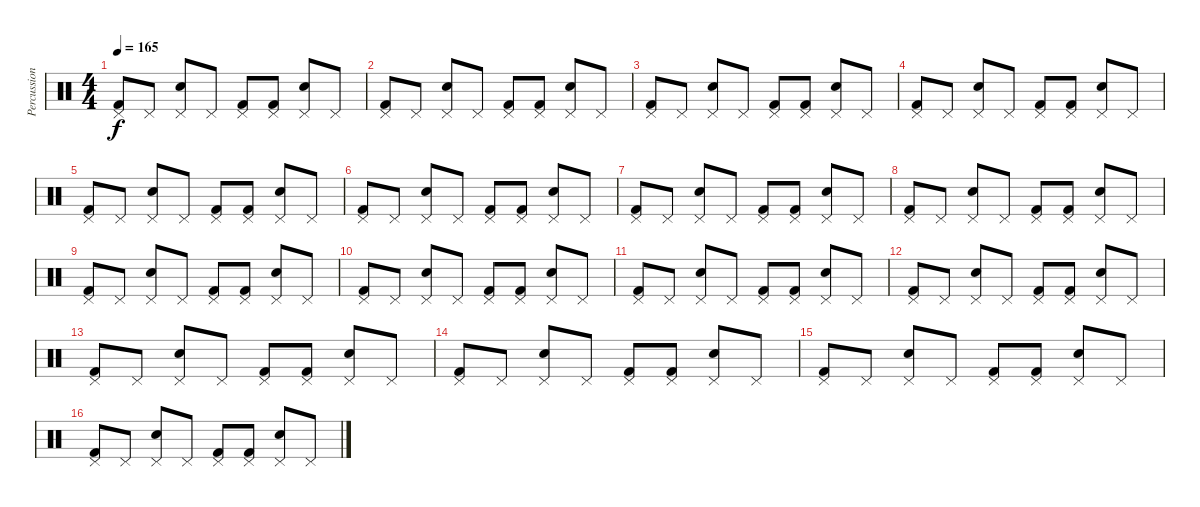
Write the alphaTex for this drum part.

\track ("Percussions" "Percussion") {instrument percussion}
\staff {score}
\articulation defaults
\ts (4 4)
\tempo 165
\clef neutral
\ks c
("Pedal Hi-Hat (hit)" "Kick (hit) 2").8{dy f} "Pedal Hi-Hat (hit)".8 ("Pedal Hi-Hat (hit)" "Electric Snare (hit)").8 "Pedal Hi-Hat (hit)".8 ("Pedal Hi-Hat (hit)" "Kick (hit) 2").8 ("Pedal Hi-Hat (hit)" "Kick (hit) 2").8 ("Pedal Hi-Hat (hit)" "Electric Snare (hit)").8 "Pedal Hi-Hat (hit)".8 |
("Pedal Hi-Hat (hit)" "Kick (hit) 2").8 "Pedal Hi-Hat (hit)".8 ("Pedal Hi-Hat (hit)" "Electric Snare (hit)").8 "Pedal Hi-Hat (hit)".8 ("Pedal Hi-Hat (hit)" "Kick (hit) 2").8 ("Pedal Hi-Hat (hit)" "Kick (hit) 2").8 ("Pedal Hi-Hat (hit)" "Electric Snare (hit)").8 "Pedal Hi-Hat (hit)".8 |
("Pedal Hi-Hat (hit)" "Kick (hit) 2").8 "Pedal Hi-Hat (hit)".8 ("Pedal Hi-Hat (hit)" "Electric Snare (hit)").8 "Pedal Hi-Hat (hit)".8 ("Pedal Hi-Hat (hit)" "Kick (hit) 2").8 ("Pedal Hi-Hat (hit)" "Kick (hit) 2").8 ("Pedal Hi-Hat (hit)" "Electric Snare (hit)").8 "Pedal Hi-Hat (hit)".8 |
("Pedal Hi-Hat (hit)" "Kick (hit) 2").8 "Pedal Hi-Hat (hit)".8 ("Pedal Hi-Hat (hit)" "Electric Snare (hit)").8 "Pedal Hi-Hat (hit)".8 ("Pedal Hi-Hat (hit)" "Kick (hit) 2").8 ("Pedal Hi-Hat (hit)" "Kick (hit) 2").8 ("Pedal Hi-Hat (hit)" "Electric Snare (hit)").8 "Pedal Hi-Hat (hit)".8 |
("Pedal Hi-Hat (hit)" "Kick (hit) 2").8 "Pedal Hi-Hat (hit)".8 ("Pedal Hi-Hat (hit)" "Electric Snare (hit)").8 "Pedal Hi-Hat (hit)".8 ("Pedal Hi-Hat (hit)" "Kick (hit) 2").8 ("Pedal Hi-Hat (hit)" "Kick (hit) 2").8 ("Pedal Hi-Hat (hit)" "Electric Snare (hit)").8 "Pedal Hi-Hat (hit)".8 |
("Pedal Hi-Hat (hit)" "Kick (hit) 2").8 "Pedal Hi-Hat (hit)".8 ("Pedal Hi-Hat (hit)" "Electric Snare (hit)").8 "Pedal Hi-Hat (hit)".8 ("Pedal Hi-Hat (hit)" "Kick (hit) 2").8 ("Pedal Hi-Hat (hit)" "Kick (hit) 2").8 ("Pedal Hi-Hat (hit)" "Electric Snare (hit)").8 "Pedal Hi-Hat (hit)".8 |
("Pedal Hi-Hat (hit)" "Kick (hit) 2").8 "Pedal Hi-Hat (hit)".8 ("Pedal Hi-Hat (hit)" "Electric Snare (hit)").8 "Pedal Hi-Hat (hit)".8 ("Pedal Hi-Hat (hit)" "Kick (hit) 2").8 ("Pedal Hi-Hat (hit)" "Kick (hit) 2").8 ("Pedal Hi-Hat (hit)" "Electric Snare (hit)").8 "Pedal Hi-Hat (hit)".8 |
("Pedal Hi-Hat (hit)" "Kick (hit) 2").8 "Pedal Hi-Hat (hit)".8 ("Pedal Hi-Hat (hit)" "Electric Snare (hit)").8 "Pedal Hi-Hat (hit)".8 ("Pedal Hi-Hat (hit)" "Kick (hit) 2").8 ("Pedal Hi-Hat (hit)" "Kick (hit) 2").8 ("Pedal Hi-Hat (hit)" "Electric Snare (hit)").8 "Pedal Hi-Hat (hit)".8 |
("Pedal Hi-Hat (hit)" "Kick (hit) 2").8 "Pedal Hi-Hat (hit)".8 ("Pedal Hi-Hat (hit)" "Electric Snare (hit)").8 "Pedal Hi-Hat (hit)".8 ("Pedal Hi-Hat (hit)" "Kick (hit) 2").8 ("Pedal Hi-Hat (hit)" "Kick (hit) 2").8 ("Pedal Hi-Hat (hit)" "Electric Snare (hit)").8 "Pedal Hi-Hat (hit)".8 |
("Pedal Hi-Hat (hit)" "Kick (hit) 2").8 "Pedal Hi-Hat (hit)".8 ("Pedal Hi-Hat (hit)" "Electric Snare (hit)").8 "Pedal Hi-Hat (hit)".8 ("Pedal Hi-Hat (hit)" "Kick (hit) 2").8 ("Pedal Hi-Hat (hit)" "Kick (hit) 2").8 ("Pedal Hi-Hat (hit)" "Electric Snare (hit)").8 "Pedal Hi-Hat (hit)".8 |
("Pedal Hi-Hat (hit)" "Kick (hit) 2").8 "Pedal Hi-Hat (hit)".8 ("Pedal Hi-Hat (hit)" "Electric Snare (hit)").8 "Pedal Hi-Hat (hit)".8 ("Pedal Hi-Hat (hit)" "Kick (hit) 2").8 ("Pedal Hi-Hat (hit)" "Kick (hit) 2").8 ("Pedal Hi-Hat (hit)" "Electric Snare (hit)").8 "Pedal Hi-Hat (hit)".8 |
("Pedal Hi-Hat (hit)" "Kick (hit) 2").8 "Pedal Hi-Hat (hit)".8 ("Pedal Hi-Hat (hit)" "Electric Snare (hit)").8 "Pedal Hi-Hat (hit)".8 ("Pedal Hi-Hat (hit)" "Kick (hit) 2").8 ("Pedal Hi-Hat (hit)" "Kick (hit) 2").8 ("Pedal Hi-Hat (hit)" "Electric Snare (hit)").8 "Pedal Hi-Hat (hit)".8 |
("Pedal Hi-Hat (hit)" "Kick (hit) 2").8 "Pedal Hi-Hat (hit)".8 ("Pedal Hi-Hat (hit)" "Electric Snare (hit)").8 "Pedal Hi-Hat (hit)".8 ("Pedal Hi-Hat (hit)" "Kick (hit) 2").8 ("Pedal Hi-Hat (hit)" "Kick (hit) 2").8 ("Pedal Hi-Hat (hit)" "Electric Snare (hit)").8 "Pedal Hi-Hat (hit)".8 |
("Pedal Hi-Hat (hit)" "Kick (hit) 2").8 "Pedal Hi-Hat (hit)".8 ("Pedal Hi-Hat (hit)" "Electric Snare (hit)").8 "Pedal Hi-Hat (hit)".8 ("Pedal Hi-Hat (hit)" "Kick (hit) 2").8 ("Pedal Hi-Hat (hit)" "Kick (hit) 2").8 ("Pedal Hi-Hat (hit)" "Electric Snare (hit)").8 "Pedal Hi-Hat (hit)".8 |
("Pedal Hi-Hat (hit)" "Kick (hit) 2").8 "Pedal Hi-Hat (hit)".8 ("Pedal Hi-Hat (hit)" "Electric Snare (hit)").8 "Pedal Hi-Hat (hit)".8 ("Pedal Hi-Hat (hit)" "Kick (hit) 2").8 ("Pedal Hi-Hat (hit)" "Kick (hit) 2").8 ("Pedal Hi-Hat (hit)" "Electric Snare (hit)").8 "Pedal Hi-Hat (hit)".8 |
("Pedal Hi-Hat (hit)" "Kick (hit) 2").8 "Pedal Hi-Hat (hit)".8 ("Pedal Hi-Hat (hit)" "Electric Snare (hit)").8 "Pedal Hi-Hat (hit)".8 ("Pedal Hi-Hat (hit)" "Kick (hit) 2").8 ("Pedal Hi-Hat (hit)" "Kick (hit) 2").8 ("Pedal Hi-Hat (hit)" "Electric Snare (hit)").8 "Pedal Hi-Hat (hit)".8
